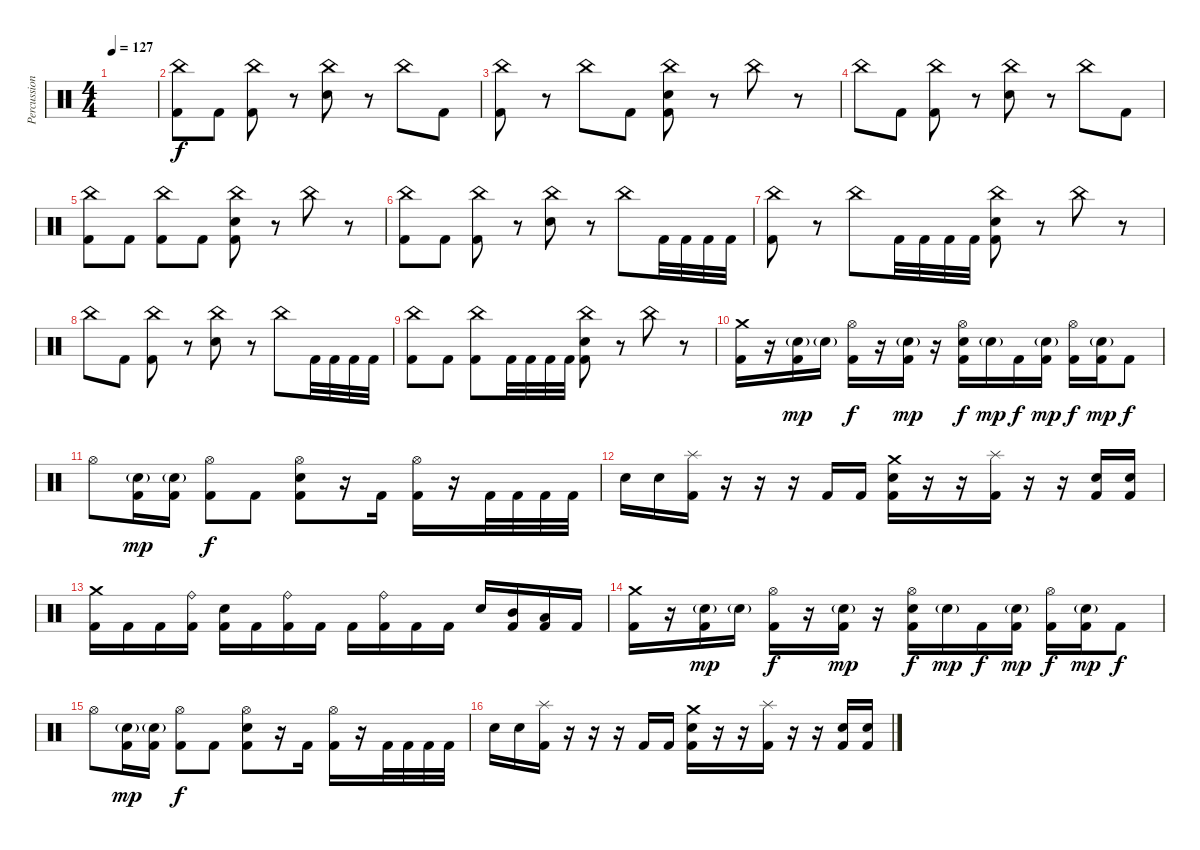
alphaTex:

\track ("Percussion" "Percussion") {instrument percussion}
\staff {score}
\articulation defaults
\ts (4 4)
\tempo 127
\clef neutral
\ks c
|
("China (hit)" "Kick (hit) 2").8 "Kick (hit) 2".8 ("China (hit)" "Kick (hit) 2").8 r.8 ("China (hit)" "Snare (hit) 2").8 r.8 "China (hit)".8 "Kick (hit) 2".8 |
("China (hit)" "Kick (hit) 2").8 r.8 "China (hit)".8 "Kick (hit) 2".8 ("China (hit)" "Snare (hit) 2" "Kick (hit) 2").8 r.8 "China (hit)".8 r.8 |
"China (hit)".8 "Kick (hit) 2".8 ("China (hit)" "Kick (hit) 2").8 r.8 ("China (hit)" "Snare (hit) 2").8 r.8 "China (hit)".8 "Kick (hit) 2".8 |
("China (hit)" "Kick (hit) 2").8 "Kick (hit) 2".8 ("China (hit)" "Kick (hit) 2").8 "Kick (hit) 2".8 ("China (hit)" "Snare (hit) 2" "Kick (hit) 2").8 r.8 "China (hit)".8 r.8 |
("China (hit)" "Kick (hit) 2").8 "Kick (hit) 2".8 ("China (hit)" "Kick (hit) 2").8 r.8 ("China (hit)" "Snare (hit) 2").8 r.8 "China (hit)".8 "Kick (hit) 2".32 "Kick (hit) 2".32 "Kick (hit) 2".32 "Kick (hit) 2".32 |
("China (hit)" "Kick (hit) 2").8 r.8 "China (hit)".8 "Kick (hit) 2".32 "Kick (hit) 2".32 "Kick (hit) 2".32 "Kick (hit) 2".32 ("China (hit)" "Snare (hit) 2" "Kick (hit) 2").8 r.8 "China (hit)".8 r.8 |
"China (hit)".8 "Kick (hit) 2".8 ("China (hit)" "Kick (hit) 2").8 r.8 ("China (hit)" "Snare (hit) 2").8 r.8 "China (hit)".8 "Kick (hit) 2".32 "Kick (hit) 2".32 "Kick (hit) 2".32 "Kick (hit) 2".32 |
("China (hit)" "Kick (hit) 2").8 "Kick (hit) 2".8 ("China (hit)" "Kick (hit) 2").8 "Kick (hit) 2".32 "Kick (hit) 2".32 "Kick (hit) 2".32 "Kick (hit) 2".32 ("China (hit)" "Snare (hit) 2" "Kick (hit) 2").8 r.8 "China (hit)".8 r.8 |
("Crash medium (hit)" "Kick (hit) 2").16 r.16 ("Snare (hit) 2"{g} "Kick (hit) 2").16{dy mp} "Snare (hit) 2"{g}.16 ("Hi-Hat (open)" "Kick (hit) 2").16{dy f} r.16 ("Snare (hit) 2"{g} "Kick (hit) 2").16{dy mp} r.16 ("Hi-Hat (open)" "Snare (hit) 2" "Kick (hit) 2").16{dy f} "Snare (hit) 2"{g}.16{dy mp} "Kick (hit) 2".16{dy f} ("Snare (hit) 2"{g} "Kick (hit) 2").16{dy mp} ("Hi-Hat (open)" "Kick (hit) 2").16{dy f} ("Snare (hit) 2"{g} "Kick (hit) 2").16{dy mp} "Kick (hit) 2".8{dy f} |
"Hi-Hat (open)".8 ("Snare (hit) 2"{g} "Kick (hit) 2").16{dy mp} ("Snare (hit) 2"{g} "Kick (hit) 2").16 ("Hi-Hat (open)" "Kick (hit) 2").8{dy f} "Kick (hit) 2".8 ("Hi-Hat (open)" "Snare (hit) 2" "Kick (hit) 2").8 r.16 "Kick (hit) 2".16 ("Hi-Hat (open)" "Kick (hit) 2").16 r.16 "Kick (hit) 2".32 "Kick (hit) 2".32 "Kick (hit) 2".32 "Kick (hit) 2".32 |
"Snare (hit) 2".16 "Snare (hit) 2".16 ("Splash (hit)" "Kick (hit) 2").16 r.16 r.16 r.16 "Kick (hit) 2".16 "Kick (hit) 2".16 ("Crash medium (hit)" "Snare (hit) 2" "Kick (hit) 2").16 r.16 r.16 ("Splash (hit)" "Kick (hit) 2").16 r.16 r.16 ("Snare (hit) 2" "Kick (hit) 2").16 ("Snare (hit) 2" "Kick (hit) 2").16 |
("Crash medium (hit)" "Kick (hit) 2").16 "Kick (hit) 2".16 "Kick (hit) 2".16 ("Ride (bell)" "Kick (hit) 2").16 ("Snare (hit) 2" "Kick (hit) 2").16 "Kick (hit) 2".16 ("Ride (bell)" "Kick (hit) 2").16 "Kick (hit) 2".16 "Kick (hit) 2".16 ("Ride (bell)" "Kick (hit) 2").16 "Kick (hit) 2".16 "Kick (hit) 2".16 "Snare (hit) 2".16 ("Mid Tom (hit)" "Kick (hit) 2").16 ("Low Tom (hit)" "Kick (hit) 2").16 "Kick (hit) 2".16 |
("Crash medium (hit)" "Kick (hit) 2").16 r.16 ("Snare (hit) 2"{g} "Kick (hit) 2").16{dy mp} "Snare (hit) 2"{g}.16 ("Hi-Hat (open)" "Kick (hit) 2").16{dy f} r.16 ("Snare (hit) 2"{g} "Kick (hit) 2").16{dy mp} r.16 ("Hi-Hat (open)" "Snare (hit) 2" "Kick (hit) 2").16{dy f} "Snare (hit) 2"{g}.16{dy mp} "Kick (hit) 2".16{dy f} ("Snare (hit) 2"{g} "Kick (hit) 2").16{dy mp} ("Hi-Hat (open)" "Kick (hit) 2").16{dy f} ("Snare (hit) 2"{g} "Kick (hit) 2").16{dy mp} "Kick (hit) 2".8{dy f} |
"Hi-Hat (open)".8 ("Snare (hit) 2"{g} "Kick (hit) 2").16{dy mp} ("Snare (hit) 2"{g} "Kick (hit) 2").16 ("Hi-Hat (open)" "Kick (hit) 2").8{dy f} "Kick (hit) 2".8 ("Hi-Hat (open)" "Snare (hit) 2" "Kick (hit) 2").8 r.16 "Kick (hit) 2".16 ("Hi-Hat (open)" "Kick (hit) 2").16 r.16 "Kick (hit) 2".32 "Kick (hit) 2".32 "Kick (hit) 2".32 "Kick (hit) 2".32 |
"Snare (hit) 2".16 "Snare (hit) 2".16 ("Splash (hit)" "Kick (hit) 2").16 r.16 r.16 r.16 "Kick (hit) 2".16 "Kick (hit) 2".16 ("Crash medium (hit)" "Snare (hit) 2" "Kick (hit) 2").16 r.16 r.16 ("Splash (hit)" "Kick (hit) 2").16 r.16 r.16 ("Snare (hit) 2" "Kick (hit) 2").16 ("Snare (hit) 2" "Kick (hit) 2").16
